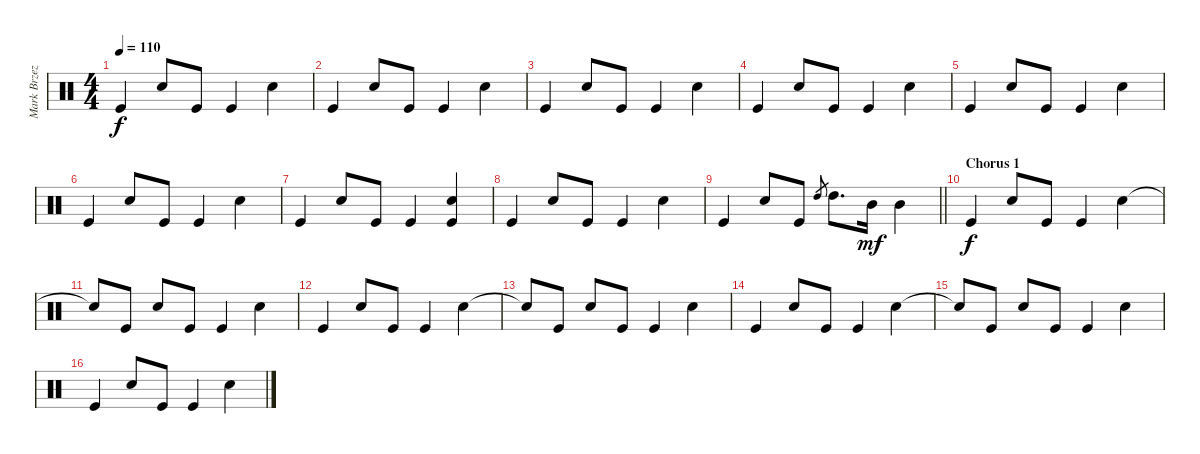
\track ("Mark Brzezicki - Toms, Snare & Bass Drum" "Mark Brzez") {instrument percussion}
\staff {score}
\articulation defaults
\ts (4 4)
\tempo 110
\clef neutral
\ks c "Kick (hit)".4{dy f} "Electric Snare (hit)".8 "Kick (hit)".8 "Kick (hit)".4 "Electric Snare (hit)".4
|
"Kick (hit)".4 "Electric Snare (hit)".8 "Kick (hit)".8 "Kick (hit)".4 "Electric Snare (hit)".4 |
"Kick (hit)".4 "Electric Snare (hit)".8 "Kick (hit)".8 "Kick (hit)".4 "Electric Snare (hit)".4 |
"Kick (hit)".4 "Electric Snare (hit)".8 "Kick (hit)".8 "Kick (hit)".4 "Electric Snare (hit)".4 |
"Kick (hit)".4 "Electric Snare (hit)".8 "Kick (hit)".8 "Kick (hit)".4 "Electric Snare (hit)".4 |
"Kick (hit)".4 "Electric Snare (hit)".8 "Kick (hit)".8 "Kick (hit)".4 "Electric Snare (hit)".4 |
"Kick (hit)".4 "Electric Snare (hit)".8 "Kick (hit)".8 "Kick (hit)".4 ("Electric Snare (hit)" "Kick (hit)").4 |
"Kick (hit)".4 "Electric Snare (hit)".8 "Kick (hit)".8 "Kick (hit)".4 "Electric Snare (hit)".4 |
\barLineRight lightlight "Kick (hit)".4 "Electric Snare (hit)".8 "Kick (hit)".8 "High Tom (hit)".8{gr} "High Tom (hit)".8{d} "Mid Tom (hit)".16{dy mf} "Mid Tom (hit)".4
|
\section ("" "Chorus 1")
"Kick (hit)".4{dy f} "Electric Snare (hit)".8 "Kick (hit)".8 "Kick (hit)".4 "Electric Snare (hit)".4 |
"Snare (hit)"{t}.8 "Kick (hit)".8 "Electric Snare (hit)".8 "Kick (hit)".8 "Kick (hit)".4 "Electric Snare (hit)".4 |
"Kick (hit)".4 "Electric Snare (hit)".8 "Kick (hit)".8 "Kick (hit)".4 "Electric Snare (hit)".4 |
"Snare (hit)"{t}.8 "Kick (hit)".8 "Electric Snare (hit)".8 "Kick (hit)".8 "Kick (hit)".4 "Electric Snare (hit)".4 |
"Kick (hit)".4 "Electric Snare (hit)".8 "Kick (hit)".8 "Kick (hit)".4 "Electric Snare (hit)".4 |
"Snare (hit)"{t}.8 "Kick (hit)".8 "Electric Snare (hit)".8 "Kick (hit)".8 "Kick (hit)".4 "Electric Snare (hit)".4 |
"Kick (hit)".4 "Electric Snare (hit)".8 "Kick (hit)".8 "Kick (hit)".4 "Electric Snare (hit)".4
